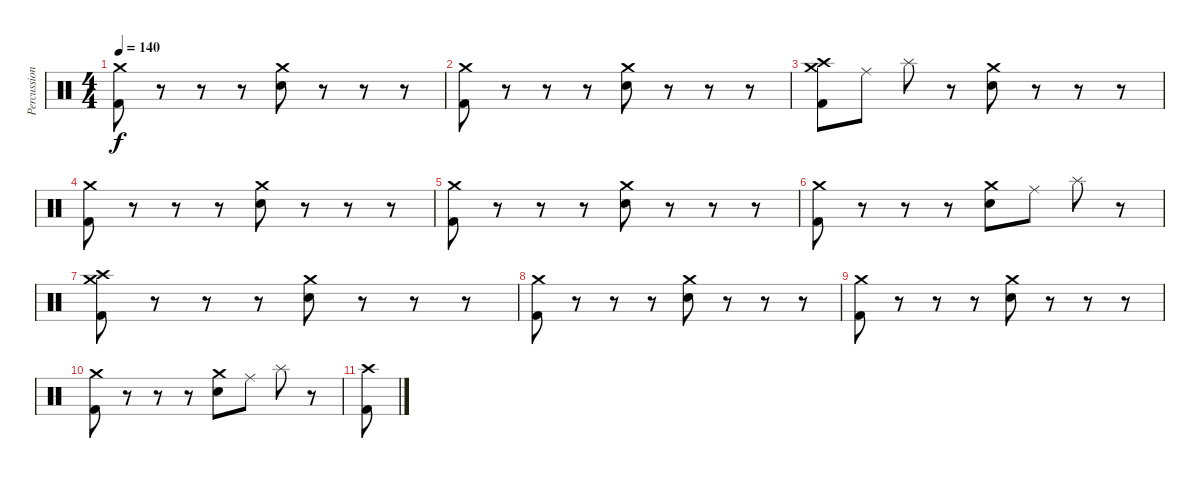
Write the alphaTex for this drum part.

\track ("Percussion" "Percussion") {instrument percussion}
\staff {score}
\articulation defaults
\ts (4 4)
\tempo 140
\clef neutral
\ks c
("Crash medium (hit)" "Kick (hit) 2").8{dy f} r.8 r.8 r.8 ("Crash medium (hit)" "Snare (hit) 2").8 r.8 r.8 r.8 |
("Crash medium (hit)" "Kick (hit) 2").8 r.8 r.8 r.8 ("Crash medium (hit)" "Snare (hit) 2").8 r.8 r.8 r.8 |
("Crash medium (hit)" "Crash high (hit)" "Kick (hit) 2").8 "Ride (middle)".8 "Splash (hit)".8 r.8 ("Crash medium (hit)" "Snare (hit) 2").8 r.8 r.8 r.8 |
("Crash medium (hit)" "Kick (hit) 2").8 r.8 r.8 r.8 ("Crash medium (hit)" "Snare (hit) 2").8 r.8 r.8 r.8 |
("Crash medium (hit)" "Kick (hit) 2").8 r.8 r.8 r.8 ("Crash medium (hit)" "Snare (hit) 2").8 r.8 r.8 r.8 |
("Crash medium (hit)" "Kick (hit) 2").8 r.8 r.8 r.8 ("Crash medium (hit)" "Snare (hit) 2").8 "Ride (middle)".8 "Splash (hit)".8 r.8 |
("Crash medium (hit)" "Crash high (hit)" "Kick (hit) 2").8 r.8 r.8 r.8 ("Crash medium (hit)" "Snare (hit) 2").8 r.8 r.8 r.8 |
("Crash medium (hit)" "Kick (hit) 2").8 r.8 r.8 r.8 ("Crash medium (hit)" "Snare (hit) 2").8 r.8 r.8 r.8 |
("Crash medium (hit)" "Kick (hit) 2").8 r.8 r.8 r.8 ("Crash medium (hit)" "Snare (hit) 2").8 r.8 r.8 r.8 |
("Crash medium (hit)" "Kick (hit) 2").8 r.8 r.8 r.8 ("Crash medium (hit)" "Snare (hit) 2").8 "Ride (middle)".8 "Splash (hit)".8 r.8 |
("Crash high (hit)" "Kick (hit) 2").8
